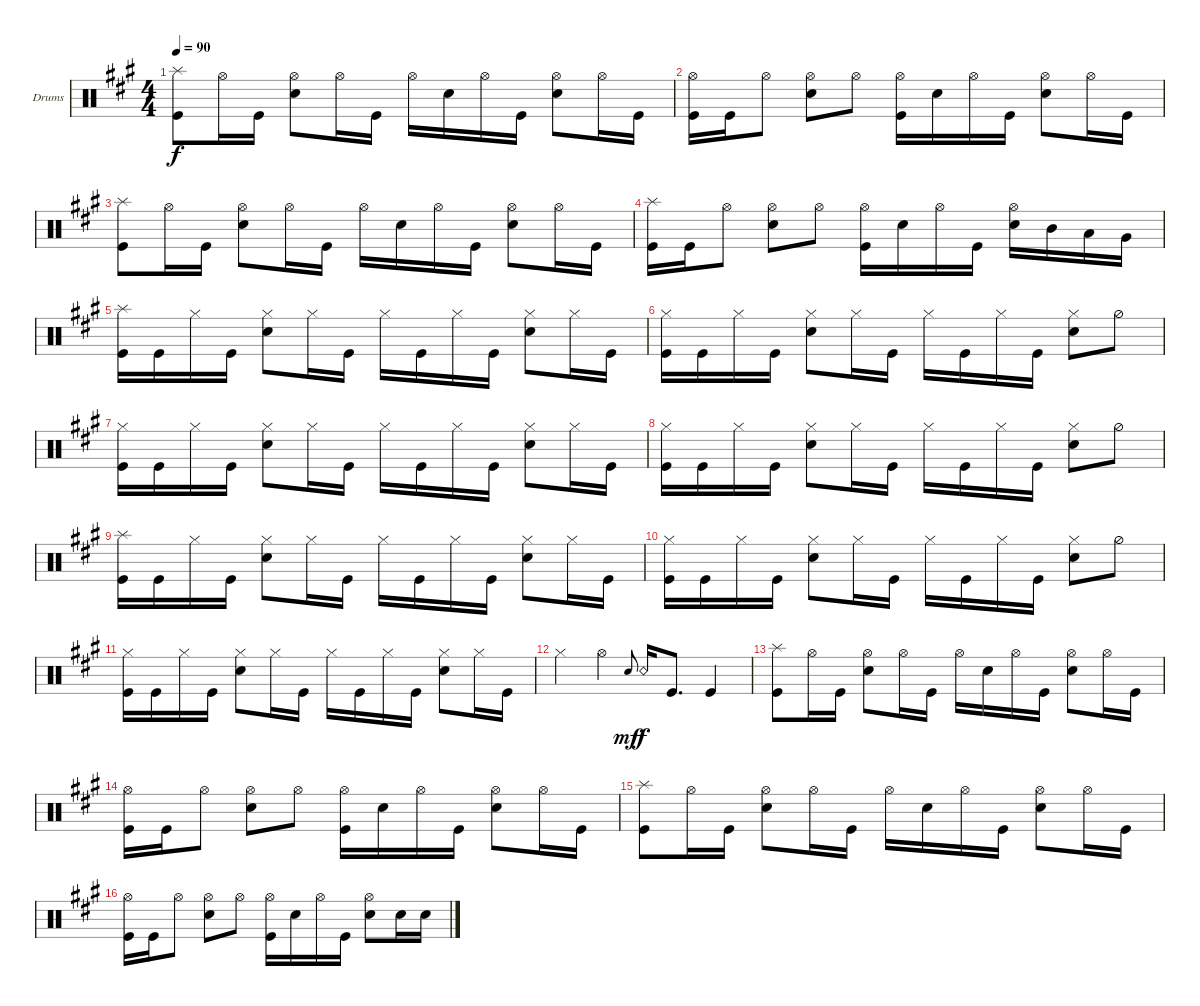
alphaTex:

\bracketExtendMode groupsimilarinstruments
\firstSystemTrackNameOrientation horizontal
\otherSystemsTrackNameOrientation horizontal
\track ("Drumkit" "Drums") {instrument percussion}
\staff {score}
\articulation defaults
\ts (4 4)
\tempo 90
\clef neutral
\ks f#minor
("Kick (hit)" "Splash (hit)").8{dy f} "Hi-Hat (open)".16 "Kick (hit)".16 ("Snare (hit) 2" "Hi-Hat (open)").8 "Hi-Hat (open)".16 "Kick (hit)".16 "Hi-Hat (open)".16 "Snare (hit) 2".16 "Hi-Hat (open)".16 "Kick (hit)".16 ("Snare (hit) 2" "Hi-Hat (open)").8 "Hi-Hat (open)".16 "Kick (hit)".16 |
("Hi-Hat (open)" "Kick (hit)").16 "Kick (hit)".16 "Hi-Hat (open)".8 ("Snare (hit) 2" "Hi-Hat (open)").8 "Hi-Hat (open)".8 ("Kick (hit)" "Hi-Hat (open)").16 "Snare (hit) 2".16 "Hi-Hat (open)".16 "Kick (hit)".16 ("Snare (hit) 2" "Hi-Hat (open)").8 "Hi-Hat (open)".16 "Kick (hit)".16 |
("Kick (hit)" "Splash (hit)").8 "Hi-Hat (open)".16 "Kick (hit)".16 ("Snare (hit) 2" "Hi-Hat (open)").8 "Hi-Hat (open)".16 "Kick (hit)".16 "Hi-Hat (open)".16 "Snare (hit) 2".16 "Hi-Hat (open)".16 "Kick (hit)".16 ("Snare (hit) 2" "Hi-Hat (open)").8 "Hi-Hat (open)".16 "Kick (hit)".16 |
("Kick (hit)" "Splash (hit)").16 "Kick (hit)".16 "Hi-Hat (open)".8 ("Snare (hit) 2" "Hi-Hat (open)").8 "Hi-Hat (open)".8 ("Kick (hit)" "Hi-Hat (open)").16 "Snare (hit) 2".16 "Hi-Hat (open)".16 "Kick (hit)".16 ("Snare (hit) 2" "Hi-Hat (open)").16 "Mid Tom (hit)".16 "Low Tom (hit)".16 "Very Low Tom (hit)".16 |
("Kick (hit)" "Splash (hit)").16 "Kick (hit)".16 "Hi-Hat (closed)".16 "Kick (hit)".16 ("Snare (hit) 2" "Hi-Hat (closed)").8 "Hi-Hat (closed)".16 "Kick (hit)".16 "Hi-Hat (closed)".16 "Kick (hit)".16 "Hi-Hat (closed)".16 "Kick (hit)".16 ("Snare (hit) 2" "Hi-Hat (closed)").8 "Hi-Hat (closed)".16 "Kick (hit)".16 |
("Kick (hit)" "Hi-Hat (closed)").16 "Kick (hit)".16 "Hi-Hat (closed)".16 "Kick (hit)".16 ("Snare (hit) 2" "Hi-Hat (closed)").8 "Hi-Hat (closed)".16 "Kick (hit)".16 "Hi-Hat (closed)".16 "Kick (hit)".16 "Hi-Hat (closed)".16 "Kick (hit)".16 ("Snare (hit) 2" "Hi-Hat (closed)").8 "Hi-Hat (half)".8 |
("Kick (hit)" "Hi-Hat (closed)").16 "Kick (hit)".16 "Hi-Hat (closed)".16 "Kick (hit)".16 ("Snare (hit) 2" "Hi-Hat (closed)").8 "Hi-Hat (closed)".16 "Kick (hit)".16 "Hi-Hat (closed)".16 "Kick (hit)".16 "Hi-Hat (closed)".16 "Kick (hit)".16 ("Snare (hit) 2" "Hi-Hat (closed)").8 "Hi-Hat (closed)".16 "Kick (hit)".16 |
("Kick (hit)" "Hi-Hat (closed)").16 "Kick (hit)".16 "Hi-Hat (closed)".16 "Kick (hit)".16 ("Snare (hit) 2" "Hi-Hat (closed)").8 "Hi-Hat (closed)".16 "Kick (hit)".16 "Hi-Hat (closed)".16 "Kick (hit)".16 "Hi-Hat (closed)".16 "Kick (hit)".16 ("Snare (hit) 2" "Hi-Hat (closed)").8 "Hi-Hat (half)".8 |
("Kick (hit)" "Splash (hit)").16 "Kick (hit)".16 "Hi-Hat (closed)".16 "Kick (hit)".16 ("Snare (hit) 2" "Hi-Hat (closed)").8 "Hi-Hat (closed)".16 "Kick (hit)".16 "Hi-Hat (closed)".16 "Kick (hit)".16 "Hi-Hat (closed)".16 "Kick (hit)".16 ("Snare (hit) 2" "Hi-Hat (closed)").8 "Hi-Hat (closed)".16 "Kick (hit)".16 |
("Kick (hit)" "Hi-Hat (closed)").16 "Kick (hit)".16 "Hi-Hat (closed)".16 "Kick (hit)".16 ("Snare (hit) 2" "Hi-Hat (closed)").8 "Hi-Hat (closed)".16 "Kick (hit)".16 "Hi-Hat (closed)".16 "Kick (hit)".16 "Hi-Hat (closed)".16 "Kick (hit)".16 ("Snare (hit) 2" "Hi-Hat (closed)").8 "Hi-Hat (half)".8 |
("Kick (hit)" "Hi-Hat (closed)").16 "Kick (hit)".16 "Hi-Hat (closed)".16 "Kick (hit)".16 ("Snare (hit) 2" "Hi-Hat (closed)").8 "Hi-Hat (closed)".16 "Kick (hit)".16 "Hi-Hat (closed)".16 "Kick (hit)".16 "Hi-Hat (closed)".16 "Kick (hit)".16 ("Snare (hit) 2" "Hi-Hat (closed)").8 "Hi-Hat (closed)".16 "Kick (hit)".16 |
"Hi-Hat (closed)".4 "Hi-Hat (open)".4 "Snare (hit) 2".8{gr onbeat dy mf} "Snare (rim shot)".16{dy f} "Kick (hit)".8{d} "Kick (hit)".4 |
("Kick (hit)" "Splash (hit)").8 "Hi-Hat (open)".16 "Kick (hit)".16 ("Snare (hit) 2" "Hi-Hat (open)").8 "Hi-Hat (open)".16 "Kick (hit)".16 "Hi-Hat (open)".16 "Snare (hit) 2".16 "Hi-Hat (open)".16 "Kick (hit)".16 ("Snare (hit) 2" "Hi-Hat (open)").8 "Hi-Hat (open)".16 "Kick (hit)".16 |
("Hi-Hat (open)" "Kick (hit)").16 "Kick (hit)".16 "Hi-Hat (open)".8 ("Snare (hit) 2" "Hi-Hat (open)").8 "Hi-Hat (open)".8 ("Kick (hit)" "Hi-Hat (open)").16 "Snare (hit) 2".16 "Hi-Hat (open)".16 "Kick (hit)".16 ("Snare (hit) 2" "Hi-Hat (open)").8 "Hi-Hat (open)".16 "Kick (hit)".16 |
("Kick (hit)" "Splash (hit)").8 "Hi-Hat (open)".16 "Kick (hit)".16 ("Snare (hit) 2" "Hi-Hat (open)").8 "Hi-Hat (open)".16 "Kick (hit)".16 "Hi-Hat (open)".16 "Snare (hit) 2".16 "Hi-Hat (open)".16 "Kick (hit)".16 ("Snare (hit) 2" "Hi-Hat (open)").8 "Hi-Hat (open)".16 "Kick (hit)".16 |
("Hi-Hat (open)" "Kick (hit)").16 "Kick (hit)".16 "Hi-Hat (open)".8 ("Snare (hit) 2" "Hi-Hat (open)").8 "Hi-Hat (open)".8 ("Kick (hit)" "Hi-Hat (open)").16 "Snare (hit) 2".16 "Hi-Hat (open)".16 "Kick (hit)".16 ("Snare (hit) 2" "Hi-Hat (open)").8 "Snare (hit) 2".16 "Snare (hit) 2".16
